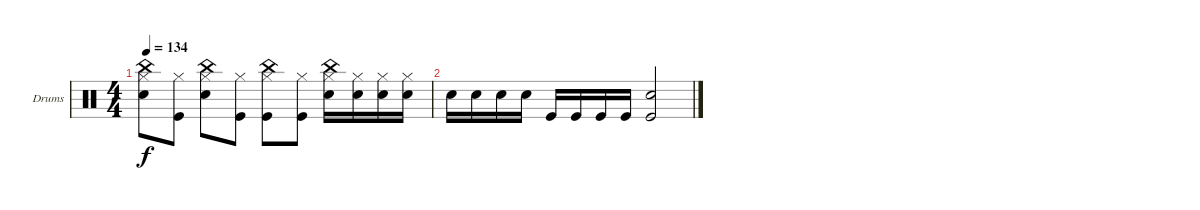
\defaultSystemsLayout 4
\bracketExtendMode groupsimilarinstruments
\firstSystemTrackNameOrientation horizontal
\otherSystemsTrackNameOrientation horizontal
\track ("Drumkit" "Drums") {instrument percussion}
\staff {score}
\articulation defaults
\ts (4 4)
\tempo 134
\clef neutral
\ks c
("Snare (hit) 2" "Hi-Hat (closed)" "China (hit)").8{dy f} ("Kick (hit)" "Hi-Hat (closed)").8 ("Snare (hit) 2" "Hi-Hat (closed)" "China (hit)").8 ("Kick (hit)" "Hi-Hat (closed)").8 ("Hi-Hat (closed)" "China (hit)" "Kick (hit)").8 ("Kick (hit)" "Hi-Hat (closed)").8 ("Snare (hit) 2" "Hi-Hat (closed)" "China (hit)").16 ("Hi-Hat (closed)" "Snare (hit) 2").16 ("Snare (hit) 2" "Hi-Hat (closed)").16 ("Snare (hit) 2" "Hi-Hat (closed)").16 |
"Snare (hit) 2".16 "Snare (hit) 2".16 "Snare (hit) 2".16 "Snare (hit) 2".16 "Kick (hit)".16 "Kick (hit)".16 "Kick (hit)".16 "Kick (hit)".16 ("Kick (hit)" "Snare (hit) 2").2
